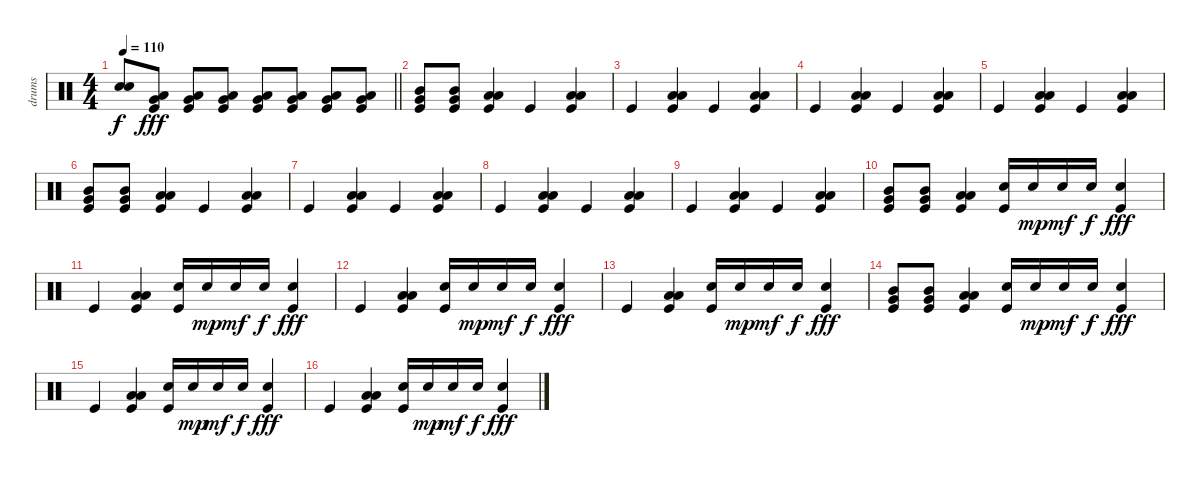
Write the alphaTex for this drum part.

\track ("drums" "drums") {instrument percussion}
\staff {score}
\articulation defaults
\ts (4 4)
\tempo 110
\clef neutral
\barLineRight lightlight
\ks c
("Snare (hit)"{t} "Snare (hit)"{t}).8{dy f} ("Low Tom (hit)" "Very Low Tom (hit)" "Kick (hit)").8{dy fff} ("Low Tom (hit)" "Very Low Tom (hit)" "Kick (hit)").8 ("Low Tom (hit)" "Very Low Tom (hit)" "Kick (hit)").8 ("Low Tom (hit)" "Very Low Tom (hit)" "Kick (hit)").8 ("Low Tom (hit)" "Very Low Tom (hit)" "Kick (hit)").8 ("Low Tom (hit)" "Very Low Tom (hit)" "Kick (hit)").8 ("Low Tom (hit)" "Very Low Tom (hit)" "Kick (hit)").8 |
("Mid Tom (hit)" "Very Low Tom (hit)" "Kick (hit)").8 ("Mid Tom (hit)" "Very Low Tom (hit)" "Kick (hit)").8 ("Low Tom (hit)" "Low Floor Tom (hit)" "Kick (hit)").4 "Kick (hit)".4 ("Low Tom (hit)" "Low Floor Tom (hit)" "Kick (hit)").4 |
"Kick (hit)".4 ("Low Tom (hit)" "Low Floor Tom (hit)" "Kick (hit)").4 "Kick (hit)".4 ("Low Tom (hit)" "Low Floor Tom (hit)" "Kick (hit)").4 |
"Kick (hit)".4 ("Low Tom (hit)" "Low Floor Tom (hit)" "Kick (hit)").4 "Kick (hit)".4 ("Low Tom (hit)" "Low Floor Tom (hit)" "Kick (hit)").4 |
"Kick (hit)".4 ("Low Tom (hit)" "Low Floor Tom (hit)" "Kick (hit)").4 "Kick (hit)".4 ("Low Tom (hit)" "Low Floor Tom (hit)" "Kick (hit)").4 |
("Mid Tom (hit)" "Very Low Tom (hit)" "Kick (hit)").8 ("Mid Tom (hit)" "Very Low Tom (hit)" "Kick (hit)").8 ("Low Tom (hit)" "Low Floor Tom (hit)" "Kick (hit)").4 "Kick (hit)".4 ("Low Tom (hit)" "Low Floor Tom (hit)" "Kick (hit)").4 |
"Kick (hit)".4 ("Low Tom (hit)" "Low Floor Tom (hit)" "Kick (hit)").4 "Kick (hit)".4 ("Low Tom (hit)" "Low Floor Tom (hit)" "Kick (hit)").4 |
"Kick (hit)".4 ("Low Tom (hit)" "Low Floor Tom (hit)" "Kick (hit)").4 "Kick (hit)".4 ("Low Tom (hit)" "Low Floor Tom (hit)" "Kick (hit)").4 |
"Kick (hit)".4 ("Low Tom (hit)" "Low Floor Tom (hit)" "Kick (hit)").4 "Kick (hit)".4 ("Low Tom (hit)" "Low Floor Tom (hit)" "Kick (hit)").4 |
("Mid Tom (hit)" "Very Low Tom (hit)" "Kick (hit)").8 ("Mid Tom (hit)" "Very Low Tom (hit)" "Kick (hit)").8 ("Low Tom (hit)" "Low Floor Tom (hit)" "Kick (hit)").4 ("Electric Snare (hit)" "Kick (hit)").16 "Electric Snare (hit)".16{dy mp} "Electric Snare (hit)".16{dy mf} "Electric Snare (hit)".16{dy f} ("Electric Snare (hit)" "Kick (hit)").4{dy fff} |
"Kick (hit)".4 ("Low Tom (hit)" "Low Floor Tom (hit)" "Kick (hit)").4 ("Electric Snare (hit)" "Kick (hit)").16 "Electric Snare (hit)".16{dy mp} "Electric Snare (hit)".16{dy mf} "Electric Snare (hit)".16{dy f} ("Electric Snare (hit)" "Kick (hit)").4{dy fff} |
"Kick (hit)".4 ("Low Tom (hit)" "Low Floor Tom (hit)" "Kick (hit)").4 ("Electric Snare (hit)" "Kick (hit)").16 "Electric Snare (hit)".16{dy mp} "Electric Snare (hit)".16{dy mf} "Electric Snare (hit)".16{dy f} ("Electric Snare (hit)" "Kick (hit)").4{dy fff} |
"Kick (hit)".4 ("Low Tom (hit)" "Low Floor Tom (hit)" "Kick (hit)").4 ("Electric Snare (hit)" "Kick (hit)").16 "Electric Snare (hit)".16{dy mp} "Electric Snare (hit)".16{dy mf} "Electric Snare (hit)".16{dy f} ("Electric Snare (hit)" "Kick (hit)").4{dy fff} |
("Mid Tom (hit)" "Very Low Tom (hit)" "Kick (hit)").8 ("Mid Tom (hit)" "Very Low Tom (hit)" "Kick (hit)").8 ("Low Tom (hit)" "Low Floor Tom (hit)" "Kick (hit)").4 ("Electric Snare (hit)" "Kick (hit)").16 "Electric Snare (hit)".16{dy mp} "Electric Snare (hit)".16{dy mf} "Electric Snare (hit)".16{dy f} ("Electric Snare (hit)" "Kick (hit)").4{dy fff} |
"Kick (hit)".4 ("Low Tom (hit)" "Low Floor Tom (hit)" "Kick (hit)").4 ("Electric Snare (hit)" "Kick (hit)").16 "Electric Snare (hit)".16{dy mp} "Electric Snare (hit)".16{dy mf} "Electric Snare (hit)".16{dy f} ("Electric Snare (hit)" "Kick (hit)").4{dy fff} |
"Kick (hit)".4 ("Low Tom (hit)" "Low Floor Tom (hit)" "Kick (hit)").4 ("Electric Snare (hit)" "Kick (hit)").16 "Electric Snare (hit)".16{dy mp} "Electric Snare (hit)".16{dy mf} "Electric Snare (hit)".16{dy f} ("Electric Snare (hit)" "Kick (hit)").4{dy fff}
